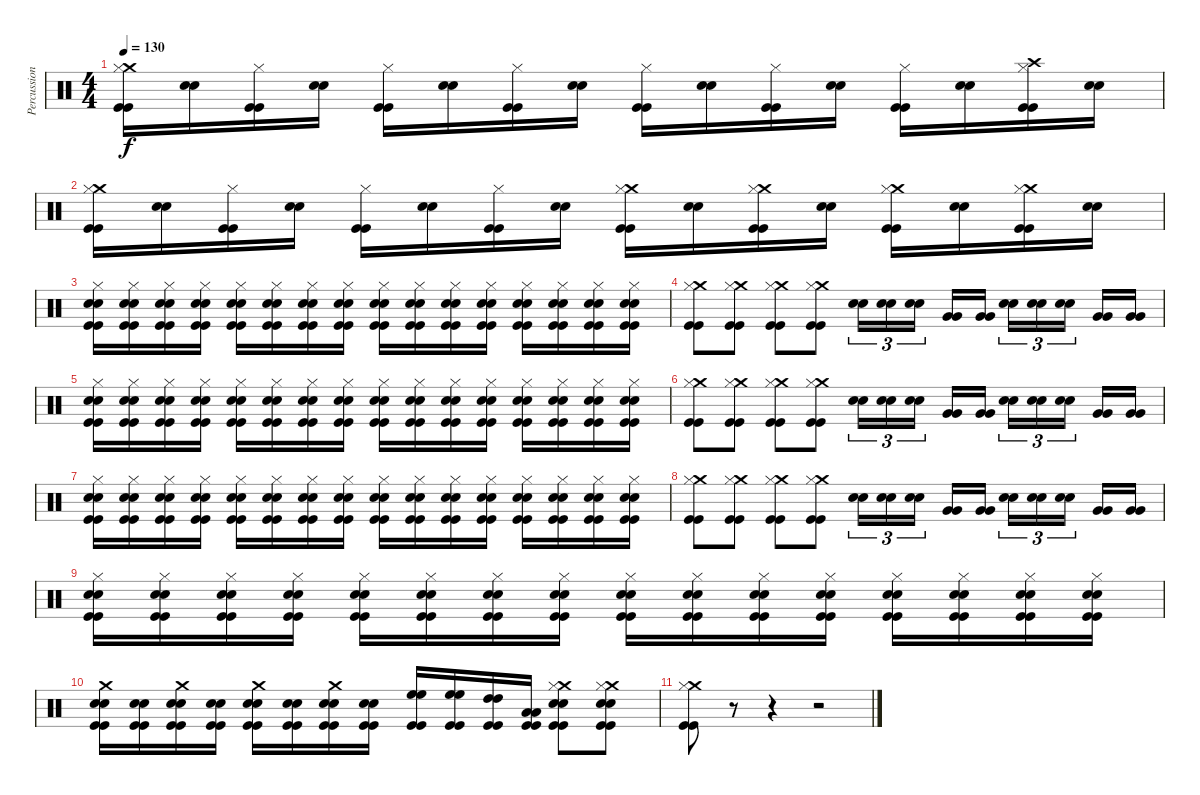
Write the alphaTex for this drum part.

\track ("Percussion" "Percussion") {instrument percussion}
\staff {score}
\articulation defaults
\ts (4 4)
\tempo 130
\clef neutral
\ks c
("Crash medium (hit)" "Hi-Hat (closed)" "Kick (hit)" "Kick (hit)").16{dy f} ("Snare (hit) 2" "Snare (hit) 2").16 ("Hi-Hat (closed)" "Kick (hit)" "Kick (hit)").16 ("Snare (hit) 2" "Snare (hit) 2").16 ("Hi-Hat (closed)" "Kick (hit)" "Kick (hit)").16 ("Snare (hit) 2" "Snare (hit) 2").16 ("Hi-Hat (closed)" "Kick (hit)" "Kick (hit)").16 ("Snare (hit) 2" "Snare (hit) 2").16 ("Hi-Hat (closed)" "Kick (hit)" "Kick (hit)").16 ("Snare (hit) 2" "Snare (hit) 2").16 ("Hi-Hat (closed)" "Kick (hit)" "Kick (hit)").16 ("Snare (hit) 2" "Snare (hit) 2").16 ("Hi-Hat (closed)" "Kick (hit)" "Kick (hit)").16 ("Snare (hit) 2" "Snare (hit) 2").16 ("Crash high (hit)" "Hi-Hat (closed)" "Kick (hit)" "Kick (hit)").16 ("Snare (hit) 2" "Snare (hit) 2").16 |
("Crash medium (hit)" "Hi-Hat (closed)" "Kick (hit)" "Kick (hit)").16 ("Snare (hit) 2" "Snare (hit) 2").16 ("Hi-Hat (closed)" "Kick (hit)" "Kick (hit)").16 ("Snare (hit) 2" "Snare (hit) 2").16 ("Hi-Hat (closed)" "Kick (hit)" "Kick (hit)").16 ("Snare (hit) 2" "Snare (hit) 2").16 ("Hi-Hat (closed)" "Kick (hit)" "Kick (hit)").16 ("Snare (hit) 2" "Snare (hit) 2").16 ("Crash medium (hit)" "Hi-Hat (closed)" "Kick (hit)" "Kick (hit)").16 ("Snare (hit) 2" "Snare (hit) 2").16 ("Crash medium (hit)" "Hi-Hat (closed)" "Kick (hit)" "Kick (hit)").16 ("Snare (hit) 2" "Snare (hit) 2").16 ("Crash medium (hit)" "Hi-Hat (closed)" "Kick (hit)" "Kick (hit)").16 ("Snare (hit) 2" "Snare (hit) 2").16 ("Crash medium (hit)" "Hi-Hat (closed)" "Kick (hit)" "Kick (hit)").16 ("Snare (hit) 2" "Snare (hit) 2").16 |
("Snare (hit) 2" "Snare (hit) 2" "Hi-Hat (closed)" "Kick (hit)" "Kick (hit)").16 ("Snare (hit) 2" "Snare (hit) 2" "Hi-Hat (closed)" "Kick (hit)" "Kick (hit)").16 ("Snare (hit) 2" "Snare (hit) 2" "Hi-Hat (closed)" "Kick (hit)" "Kick (hit)").16 ("Snare (hit) 2" "Snare (hit) 2" "Hi-Hat (closed)" "Kick (hit)" "Kick (hit)").16 ("Snare (hit) 2" "Snare (hit) 2" "Hi-Hat (closed)" "Kick (hit)" "Kick (hit)").16 ("Snare (hit) 2" "Snare (hit) 2" "Hi-Hat (closed)" "Kick (hit)" "Kick (hit)").16 ("Snare (hit) 2" "Snare (hit) 2" "Hi-Hat (closed)" "Kick (hit)" "Kick (hit)").16 ("Snare (hit) 2" "Snare (hit) 2" "Hi-Hat (closed)" "Kick (hit)" "Kick (hit)").16 ("Snare (hit) 2" "Snare (hit) 2" "Hi-Hat (closed)" "Kick (hit)" "Kick (hit)").16 ("Snare (hit) 2" "Snare (hit) 2" "Hi-Hat (closed)" "Kick (hit)" "Kick (hit)").16 ("Snare (hit) 2" "Snare (hit) 2" "Hi-Hat (closed)" "Kick (hit)" "Kick (hit)").16 ("Snare (hit) 2" "Snare (hit) 2" "Hi-Hat (closed)" "Kick (hit)" "Kick (hit)").16 ("Snare (hit) 2" "Snare (hit) 2" "Hi-Hat (closed)" "Kick (hit)" "Kick (hit)").16 ("Snare (hit) 2" "Snare (hit) 2" "Hi-Hat (closed)" "Kick (hit)" "Kick (hit)").16 ("Snare (hit) 2" "Snare (hit) 2" "Hi-Hat (closed)" "Kick (hit)" "Kick (hit)").16 ("Snare (hit) 2" "Snare (hit) 2" "Hi-Hat (closed)" "Kick (hit)" "Kick (hit)").16 |
("Crash medium (hit)" "Hi-Hat (closed)" "Kick (hit)" "Kick (hit)").8 ("Crash medium (hit)" "Hi-Hat (closed)" "Kick (hit)" "Kick (hit)").8 ("Crash medium (hit)" "Hi-Hat (closed)" "Kick (hit)" "Kick (hit)").8 ("Crash medium (hit)" "Hi-Hat (closed)" "Kick (hit)" "Kick (hit)").8 ("Snare (hit) 2" "Snare (hit) 2").16{tu (3 2)} ("Snare (hit) 2" "Snare (hit) 2").16{tu (3 2)} ("Snare (hit) 2" "Snare (hit) 2").16{tu (3 2)} ("Very Low Tom (hit)" "Very Low Tom (hit)").16 ("Very Low Tom (hit)" "Very Low Tom (hit)").16 ("Snare (hit) 2" "Snare (hit) 2").16{tu (3 2)} ("Snare (hit) 2" "Snare (hit) 2").16{tu (3 2)} ("Snare (hit) 2" "Snare (hit) 2").16{tu (3 2)} ("Very Low Tom (hit)" "Very Low Tom (hit)").16 ("Very Low Tom (hit)" "Very Low Tom (hit)").16 |
("Snare (hit) 2" "Snare (hit) 2" "Hi-Hat (closed)" "Kick (hit)" "Kick (hit)").16 ("Snare (hit) 2" "Snare (hit) 2" "Hi-Hat (closed)" "Kick (hit)" "Kick (hit)").16 ("Snare (hit) 2" "Snare (hit) 2" "Hi-Hat (closed)" "Kick (hit)" "Kick (hit)").16 ("Snare (hit) 2" "Snare (hit) 2" "Hi-Hat (closed)" "Kick (hit)" "Kick (hit)").16 ("Snare (hit) 2" "Snare (hit) 2" "Hi-Hat (closed)" "Kick (hit)" "Kick (hit)").16 ("Snare (hit) 2" "Snare (hit) 2" "Hi-Hat (closed)" "Kick (hit)" "Kick (hit)").16 ("Snare (hit) 2" "Snare (hit) 2" "Hi-Hat (closed)" "Kick (hit)" "Kick (hit)").16 ("Snare (hit) 2" "Snare (hit) 2" "Hi-Hat (closed)" "Kick (hit)" "Kick (hit)").16 ("Snare (hit) 2" "Snare (hit) 2" "Hi-Hat (closed)" "Kick (hit)" "Kick (hit)").16 ("Snare (hit) 2" "Snare (hit) 2" "Hi-Hat (closed)" "Kick (hit)" "Kick (hit)").16 ("Snare (hit) 2" "Snare (hit) 2" "Hi-Hat (closed)" "Kick (hit)" "Kick (hit)").16 ("Snare (hit) 2" "Snare (hit) 2" "Hi-Hat (closed)" "Kick (hit)" "Kick (hit)").16 ("Snare (hit) 2" "Snare (hit) 2" "Hi-Hat (closed)" "Kick (hit)" "Kick (hit)").16 ("Snare (hit) 2" "Snare (hit) 2" "Hi-Hat (closed)" "Kick (hit)" "Kick (hit)").16 ("Snare (hit) 2" "Snare (hit) 2" "Hi-Hat (closed)" "Kick (hit)" "Kick (hit)").16 ("Snare (hit) 2" "Snare (hit) 2" "Hi-Hat (closed)" "Kick (hit)" "Kick (hit)").16 |
("Crash medium (hit)" "Hi-Hat (closed)" "Kick (hit)" "Kick (hit)").8 ("Crash medium (hit)" "Hi-Hat (closed)" "Kick (hit)" "Kick (hit)").8 ("Crash medium (hit)" "Hi-Hat (closed)" "Kick (hit)" "Kick (hit)").8 ("Crash medium (hit)" "Hi-Hat (closed)" "Kick (hit)" "Kick (hit)").8 ("Snare (hit) 2" "Snare (hit) 2").16{tu (3 2)} ("Snare (hit) 2" "Snare (hit) 2").16{tu (3 2)} ("Snare (hit) 2" "Snare (hit) 2").16{tu (3 2)} ("Very Low Tom (hit)" "Very Low Tom (hit)").16 ("Very Low Tom (hit)" "Very Low Tom (hit)").16 ("Snare (hit) 2" "Snare (hit) 2").16{tu (3 2)} ("Snare (hit) 2" "Snare (hit) 2").16{tu (3 2)} ("Snare (hit) 2" "Snare (hit) 2").16{tu (3 2)} ("Very Low Tom (hit)" "Very Low Tom (hit)").16 ("Very Low Tom (hit)" "Very Low Tom (hit)").16 |
("Snare (hit) 2" "Snare (hit) 2" "Hi-Hat (closed)" "Kick (hit)" "Kick (hit)").16 ("Snare (hit) 2" "Snare (hit) 2" "Hi-Hat (closed)" "Kick (hit)" "Kick (hit)").16 ("Snare (hit) 2" "Snare (hit) 2" "Hi-Hat (closed)" "Kick (hit)" "Kick (hit)").16 ("Snare (hit) 2" "Snare (hit) 2" "Hi-Hat (closed)" "Kick (hit)" "Kick (hit)").16 ("Snare (hit) 2" "Snare (hit) 2" "Hi-Hat (closed)" "Kick (hit)" "Kick (hit)").16 ("Snare (hit) 2" "Snare (hit) 2" "Hi-Hat (closed)" "Kick (hit)" "Kick (hit)").16 ("Snare (hit) 2" "Snare (hit) 2" "Hi-Hat (closed)" "Kick (hit)" "Kick (hit)").16 ("Snare (hit) 2" "Snare (hit) 2" "Hi-Hat (closed)" "Kick (hit)" "Kick (hit)").16 ("Snare (hit) 2" "Snare (hit) 2" "Hi-Hat (closed)" "Kick (hit)" "Kick (hit)").16 ("Snare (hit) 2" "Snare (hit) 2" "Hi-Hat (closed)" "Kick (hit)" "Kick (hit)").16 ("Snare (hit) 2" "Snare (hit) 2" "Hi-Hat (closed)" "Kick (hit)" "Kick (hit)").16 ("Snare (hit) 2" "Snare (hit) 2" "Hi-Hat (closed)" "Kick (hit)" "Kick (hit)").16 ("Snare (hit) 2" "Snare (hit) 2" "Hi-Hat (closed)" "Kick (hit)" "Kick (hit)").16 ("Snare (hit) 2" "Snare (hit) 2" "Hi-Hat (closed)" "Kick (hit)" "Kick (hit)").16 ("Snare (hit) 2" "Snare (hit) 2" "Hi-Hat (closed)" "Kick (hit)" "Kick (hit)").16 ("Snare (hit) 2" "Snare (hit) 2" "Hi-Hat (closed)" "Kick (hit)" "Kick (hit)").16 |
("Crash medium (hit)" "Hi-Hat (closed)" "Kick (hit)" "Kick (hit)").8 ("Crash medium (hit)" "Hi-Hat (closed)" "Kick (hit)" "Kick (hit)").8 ("Crash medium (hit)" "Hi-Hat (closed)" "Kick (hit)" "Kick (hit)").8 ("Crash medium (hit)" "Hi-Hat (closed)" "Kick (hit)" "Kick (hit)").8 ("Snare (hit) 2" "Snare (hit) 2").16{tu (3 2)} ("Snare (hit) 2" "Snare (hit) 2").16{tu (3 2)} ("Snare (hit) 2" "Snare (hit) 2").16{tu (3 2)} ("Very Low Tom (hit)" "Very Low Tom (hit)").16 ("Very Low Tom (hit)" "Very Low Tom (hit)").16 ("Snare (hit) 2" "Snare (hit) 2").16{tu (3 2)} ("Snare (hit) 2" "Snare (hit) 2").16{tu (3 2)} ("Snare (hit) 2" "Snare (hit) 2").16{tu (3 2)} ("Very Low Tom (hit)" "Very Low Tom (hit)").16 ("Very Low Tom (hit)" "Very Low Tom (hit)").16 |
("Snare (hit) 2" "Snare (hit) 2" "Hi-Hat (closed)" "Kick (hit)" "Kick (hit)").16 ("Snare (hit) 2" "Snare (hit) 2" "Hi-Hat (closed)" "Kick (hit)" "Kick (hit)").16 ("Snare (hit) 2" "Snare (hit) 2" "Hi-Hat (closed)" "Kick (hit)" "Kick (hit)").16 ("Snare (hit) 2" "Snare (hit) 2" "Hi-Hat (closed)" "Kick (hit)" "Kick (hit)").16 ("Snare (hit) 2" "Snare (hit) 2" "Hi-Hat (closed)" "Kick (hit)" "Kick (hit)").16 ("Snare (hit) 2" "Snare (hit) 2" "Hi-Hat (closed)" "Kick (hit)" "Kick (hit)").16 ("Snare (hit) 2" "Snare (hit) 2" "Hi-Hat (closed)" "Kick (hit)" "Kick (hit)").16 ("Snare (hit) 2" "Snare (hit) 2" "Hi-Hat (closed)" "Kick (hit)" "Kick (hit)").16 ("Snare (hit) 2" "Snare (hit) 2" "Hi-Hat (closed)" "Kick (hit)" "Kick (hit)").16 ("Snare (hit) 2" "Snare (hit) 2" "Hi-Hat (closed)" "Kick (hit)" "Kick (hit)").16 ("Snare (hit) 2" "Snare (hit) 2" "Hi-Hat (closed)" "Kick (hit)" "Kick (hit)").16 ("Snare (hit) 2" "Snare (hit) 2" "Hi-Hat (closed)" "Kick (hit)" "Kick (hit)").16 ("Snare (hit) 2" "Snare (hit) 2" "Hi-Hat (closed)" "Kick (hit)" "Kick (hit)").16 ("Snare (hit) 2" "Snare (hit) 2" "Hi-Hat (closed)" "Kick (hit)" "Kick (hit)").16 ("Snare (hit) 2" "Snare (hit) 2" "Hi-Hat (closed)" "Kick (hit)" "Kick (hit)").16 ("Snare (hit) 2" "Snare (hit) 2" "Hi-Hat (closed)" "Kick (hit)" "Kick (hit)").16 |
("Crash medium (hit)" "Snare (hit) 2" "Snare (hit) 2" "Kick (hit)" "Kick (hit)").16 ("Snare (hit) 2" "Snare (hit) 2" "Kick (hit)" "Kick (hit)").16 ("Crash medium (hit)" "Snare (hit) 2" "Snare (hit) 2" "Kick (hit)" "Kick (hit)").16 ("Snare (hit) 2" "Snare (hit) 2" "Kick (hit)" "Kick (hit)").16 ("Crash medium (hit)" "Snare (hit) 2" "Snare (hit) 2" "Kick (hit)" "Kick (hit)").16 ("Snare (hit) 2" "Snare (hit) 2" "Kick (hit)" "Kick (hit)").16 ("Crash medium (hit)" "Snare (hit) 2" "Snare (hit) 2" "Kick (hit)" "Kick (hit)").16 ("Snare (hit) 2" "Snare (hit) 2" "Kick (hit)" "Kick (hit)").16 ("High Floor Tom (hit)" "High Floor Tom (hit)" "Kick (hit)" "Kick (hit)").16 ("High Floor Tom (hit)" "High Floor Tom (hit)" "Kick (hit)" "Kick (hit)").16 ("High Tom (hit)" "High Tom (hit)" "Kick (hit)" "Kick (hit)").16 ("Low Tom (hit)" "Low Tom (hit)" "Kick (hit)" "Kick (hit)").16 ("Crash medium (hit)" "Snare (hit) 2" "Snare (hit) 2" "Hi-Hat (closed)" "Kick (hit)" "Kick (hit)").8 ("Crash medium (hit)" "Snare (hit) 2" "Snare (hit) 2" "Hi-Hat (closed)" "Kick (hit)" "Kick (hit)").8 |
("Crash medium (hit)" "Hi-Hat (closed)" "Kick (hit)" "Kick (hit)").8 r.8 r.4 r.2
